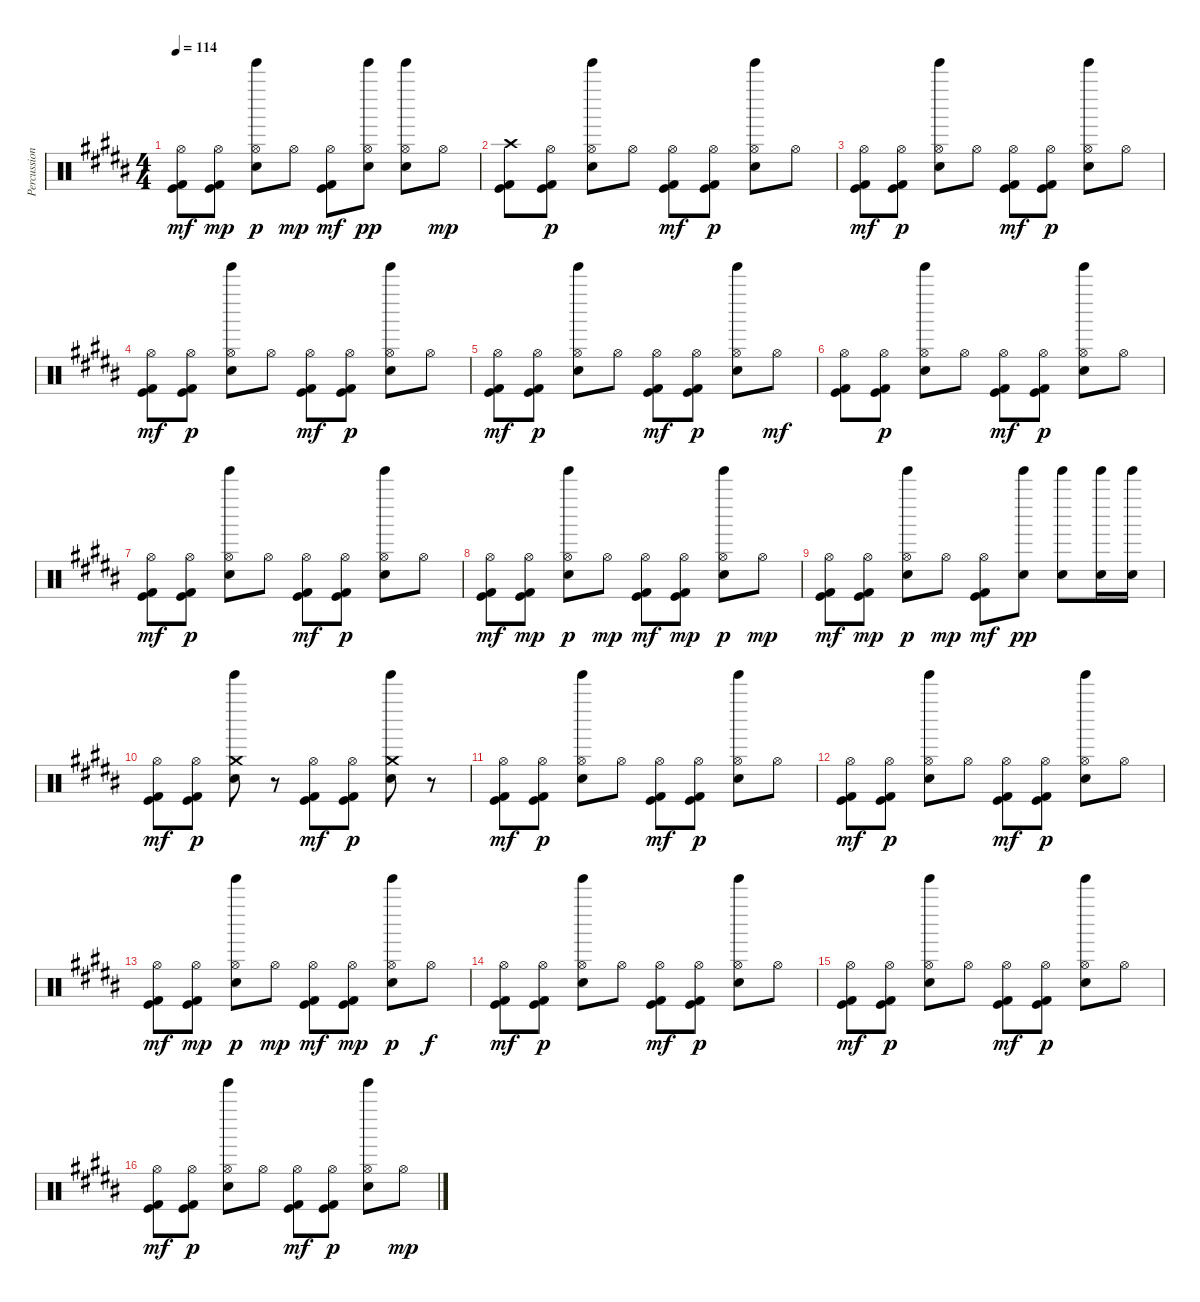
\track ("Percussion" "Percussion") {instrument percussion}
\staff {score}
\articulation defaults
\ts (4 4)
\tempo 114
\clef neutral
\ks g#minor
("Hi-Hat (open)" "Kick (hit)" "Kick (hit) 2").8{dy mf} ("Hi-Hat (open)" "Kick (hit)" "Kick (hit) 2").8{dy mp} ("Hi-Hat (open)" "Electric Snare (hit)" "Tinkle Bell (hit)").8{dy p} "Hi-Hat (open)".8{dy mp} ("Hi-Hat (open)" "Kick (hit)" "Kick (hit) 2").8{dy mf} ("Hi-Hat (open)" "Electric Snare (hit)" "Tinkle Bell (hit)").8{dy pp} ("Hi-Hat (open)" "Electric Snare (hit)" "Tinkle Bell (hit)").8 "Hi-Hat (open)".8{dy mp} |
("Crash high (hit)" "Kick (hit)" "Kick (hit) 2").8 ("Hi-Hat (open)" "Kick (hit)" "Kick (hit) 2").8{dy p} ("Hi-Hat (open)" "Electric Snare (hit)" "Tinkle Bell (hit)").8 "Hi-Hat (open)".8 ("Hi-Hat (open)" "Kick (hit)" "Kick (hit) 2").8{dy mf} ("Hi-Hat (open)" "Kick (hit)" "Kick (hit) 2").8{dy p} ("Hi-Hat (open)" "Electric Snare (hit)" "Tinkle Bell (hit)").8 "Hi-Hat (open)".8 |
("Hi-Hat (open)" "Kick (hit)" "Kick (hit) 2").8{dy mf} ("Hi-Hat (open)" "Kick (hit)" "Kick (hit) 2").8{dy p} ("Hi-Hat (open)" "Electric Snare (hit)" "Tinkle Bell (hit)").8 "Hi-Hat (open)".8 ("Hi-Hat (open)" "Kick (hit)" "Kick (hit) 2").8{dy mf} ("Hi-Hat (open)" "Kick (hit)" "Kick (hit) 2").8{dy p} ("Hi-Hat (open)" "Electric Snare (hit)" "Tinkle Bell (hit)").8 "Hi-Hat (open)".8 |
("Hi-Hat (open)" "Kick (hit)" "Kick (hit) 2").8{dy mf} ("Hi-Hat (open)" "Kick (hit)" "Kick (hit) 2").8{dy p} ("Hi-Hat (open)" "Electric Snare (hit)" "Tinkle Bell (hit)").8 "Hi-Hat (open)".8 ("Hi-Hat (open)" "Kick (hit)" "Kick (hit) 2").8{dy mf} ("Hi-Hat (open)" "Kick (hit)" "Kick (hit) 2").8{dy p} ("Hi-Hat (open)" "Electric Snare (hit)" "Tinkle Bell (hit)").8 "Hi-Hat (open)".8 |
("Hi-Hat (open)" "Kick (hit)" "Kick (hit) 2").8{dy mf} ("Hi-Hat (open)" "Kick (hit)" "Kick (hit) 2").8{dy p} ("Hi-Hat (open)" "Electric Snare (hit)" "Tinkle Bell (hit)").8 "Hi-Hat (open)".8 ("Hi-Hat (open)" "Kick (hit)" "Kick (hit) 2").8{dy mf} ("Hi-Hat (open)" "Kick (hit)" "Kick (hit) 2").8{dy p} ("Hi-Hat (open)" "Electric Snare (hit)" "Tinkle Bell (hit)").8 "Hi-Hat (open)".8{dy mf} |
("Hi-Hat (open)" "Kick (hit)" "Kick (hit) 2").8 ("Hi-Hat (open)" "Kick (hit)" "Kick (hit) 2").8{dy p} ("Hi-Hat (open)" "Electric Snare (hit)" "Tinkle Bell (hit)").8 "Hi-Hat (open)".8 ("Hi-Hat (open)" "Kick (hit)" "Kick (hit) 2").8{dy mf} ("Hi-Hat (open)" "Kick (hit)" "Kick (hit) 2").8{dy p} ("Hi-Hat (open)" "Electric Snare (hit)" "Tinkle Bell (hit)").8 "Hi-Hat (open)".8 |
("Hi-Hat (open)" "Kick (hit)" "Kick (hit) 2").8{dy mf} ("Hi-Hat (open)" "Kick (hit)" "Kick (hit) 2").8{dy p} ("Hi-Hat (open)" "Electric Snare (hit)" "Tinkle Bell (hit)").8 "Hi-Hat (open)".8 ("Hi-Hat (open)" "Kick (hit)" "Kick (hit) 2").8{dy mf} ("Hi-Hat (open)" "Kick (hit)" "Kick (hit) 2").8{dy p} ("Hi-Hat (open)" "Electric Snare (hit)" "Tinkle Bell (hit)").8 "Hi-Hat (open)".8 |
("Hi-Hat (open)" "Kick (hit)" "Kick (hit) 2").8{dy mf} ("Hi-Hat (open)" "Kick (hit)" "Kick (hit) 2").8{dy mp} ("Hi-Hat (open)" "Electric Snare (hit)" "Tinkle Bell (hit)").8{dy p} "Hi-Hat (open)".8{dy mp} ("Hi-Hat (open)" "Kick (hit)" "Kick (hit) 2").8{dy mf} ("Hi-Hat (open)" "Kick (hit)" "Kick (hit) 2").8{dy mp} ("Hi-Hat (open)" "Electric Snare (hit)" "Tinkle Bell (hit)").8{dy p} "Hi-Hat (open)".8{dy mp} |
("Hi-Hat (open)" "Kick (hit)" "Kick (hit) 2").8{dy mf} ("Hi-Hat (open)" "Kick (hit)" "Kick (hit) 2").8{dy mp} ("Hi-Hat (open)" "Electric Snare (hit)" "Tinkle Bell (hit)").8{dy p} "Hi-Hat (open)".8{dy mp} ("Hi-Hat (open)" "Kick (hit)" "Kick (hit) 2").8{dy mf} ("Electric Snare (hit)" "Tinkle Bell (hit)").8{dy pp} ("Electric Snare (hit)" "Tinkle Bell (hit)").8 ("Electric Snare (hit)" "Tinkle Bell (hit)").16 ("Electric Snare (hit)" "Tinkle Bell (hit)").16 |
("Hi-Hat (open)" "Kick (hit)" "Kick (hit) 2").8{dy mf} ("Hi-Hat (open)" "Kick (hit)" "Kick (hit) 2").8{dy p} ("Crash medium (hit)" "Electric Snare (hit)" "Tinkle Bell (hit)").8 r.8 ("Hi-Hat (open)" "Kick (hit)" "Kick (hit) 2").8{dy mf} ("Hi-Hat (open)" "Kick (hit)" "Kick (hit) 2").8{dy p} ("Crash medium (hit)" "Electric Snare (hit)" "Tinkle Bell (hit)").8 r.8 |
("Hi-Hat (open)" "Kick (hit)" "Kick (hit) 2").8{dy mf} ("Hi-Hat (open)" "Kick (hit)" "Kick (hit) 2").8{dy p} ("Hi-Hat (open)" "Electric Snare (hit)" "Tinkle Bell (hit)").8 "Hi-Hat (open)".8 ("Hi-Hat (open)" "Kick (hit)" "Kick (hit) 2").8{dy mf} ("Hi-Hat (open)" "Kick (hit)" "Kick (hit) 2").8{dy p} ("Hi-Hat (open)" "Electric Snare (hit)" "Tinkle Bell (hit)").8 "Hi-Hat (open)".8 |
("Hi-Hat (open)" "Kick (hit)" "Kick (hit) 2").8{dy mf} ("Hi-Hat (open)" "Kick (hit)" "Kick (hit) 2").8{dy p} ("Hi-Hat (open)" "Electric Snare (hit)" "Tinkle Bell (hit)").8 "Hi-Hat (open)".8 ("Hi-Hat (open)" "Kick (hit)" "Kick (hit) 2").8{dy mf} ("Hi-Hat (open)" "Kick (hit)" "Kick (hit) 2").8{dy p} ("Hi-Hat (open)" "Electric Snare (hit)" "Tinkle Bell (hit)").8 "Hi-Hat (open)".8 |
("Hi-Hat (open)" "Kick (hit)" "Kick (hit) 2").8{dy mf} ("Hi-Hat (open)" "Kick (hit)" "Kick (hit) 2").8{dy mp} ("Hi-Hat (open)" "Electric Snare (hit)" "Tinkle Bell (hit)").8{dy p} "Hi-Hat (open)".8{dy mp} ("Hi-Hat (open)" "Kick (hit)" "Kick (hit) 2").8{dy mf} ("Hi-Hat (open)" "Kick (hit)" "Kick (hit) 2").8{dy mp} ("Hi-Hat (open)" "Electric Snare (hit)" "Tinkle Bell (hit)").8{dy p} "Hi-Hat (open)".8{dy f} |
("Hi-Hat (open)" "Kick (hit)" "Kick (hit) 2").8{dy mf} ("Hi-Hat (open)" "Kick (hit)" "Kick (hit) 2").8{dy p} ("Hi-Hat (open)" "Electric Snare (hit)" "Tinkle Bell (hit)").8 "Hi-Hat (open)".8 ("Hi-Hat (open)" "Kick (hit)" "Kick (hit) 2").8{dy mf} ("Hi-Hat (open)" "Kick (hit)" "Kick (hit) 2").8{dy p} ("Hi-Hat (open)" "Electric Snare (hit)" "Tinkle Bell (hit)").8 "Hi-Hat (open)".8 |
("Hi-Hat (open)" "Kick (hit)" "Kick (hit) 2").8{dy mf} ("Hi-Hat (open)" "Kick (hit)" "Kick (hit) 2").8{dy p} ("Hi-Hat (open)" "Electric Snare (hit)" "Tinkle Bell (hit)").8 "Hi-Hat (open)".8 ("Hi-Hat (open)" "Kick (hit)" "Kick (hit) 2").8{dy mf} ("Hi-Hat (open)" "Kick (hit)" "Kick (hit) 2").8{dy p} ("Hi-Hat (open)" "Electric Snare (hit)" "Tinkle Bell (hit)").8 "Hi-Hat (open)".8 |
("Hi-Hat (open)" "Kick (hit)" "Kick (hit) 2").8{dy mf} ("Hi-Hat (open)" "Kick (hit)" "Kick (hit) 2").8{dy p} ("Hi-Hat (open)" "Electric Snare (hit)" "Tinkle Bell (hit)").8 "Hi-Hat (open)".8 ("Hi-Hat (open)" "Kick (hit)" "Kick (hit) 2").8{dy mf} ("Hi-Hat (open)" "Kick (hit)" "Kick (hit) 2").8{dy p} ("Hi-Hat (open)" "Electric Snare (hit)" "Tinkle Bell (hit)").8 "Hi-Hat (open)".8{dy mp}
